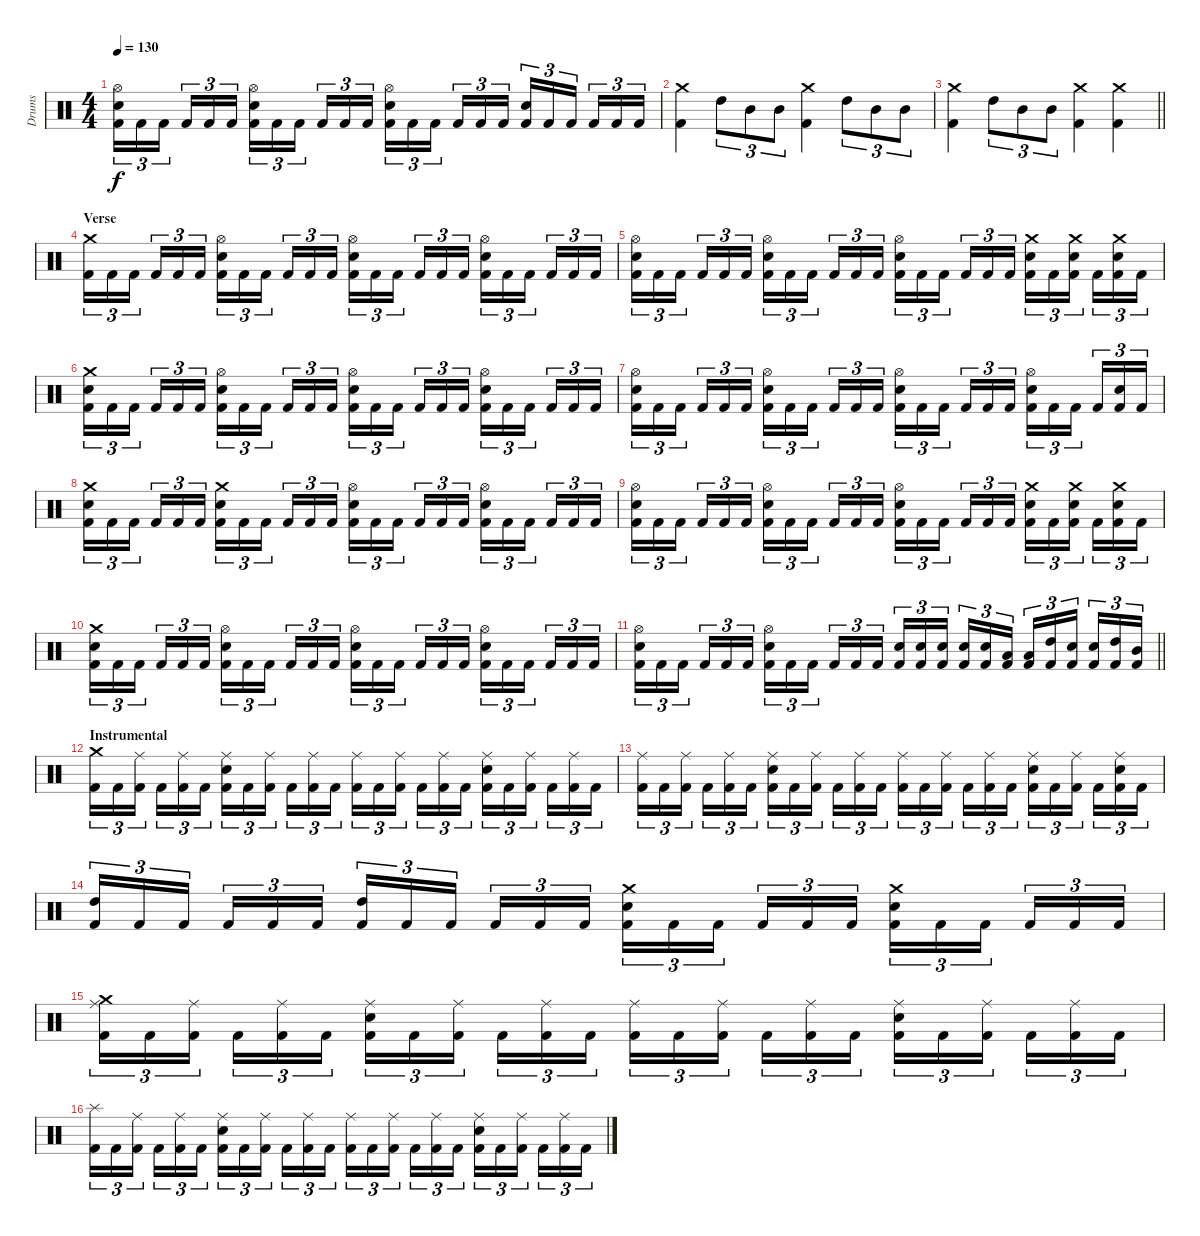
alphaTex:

\track ("Drums" "Drums") {instrument percussion}
\staff {score}
\articulation defaults
\ts (4 4)
\tempo 130
\clef neutral
\ks c
("Kick (hit) 2" "Electric Snare (hit)" "Hi-Hat (open)").16{tu (3 2) dy f} "Kick (hit) 2".16{tu (3 2)} "Kick (hit) 2".16{tu (3 2) beam splitsecondary} "Kick (hit) 2".16{tu (3 2)} "Kick (hit) 2".16{tu (3 2)} "Kick (hit) 2".16{tu (3 2)} ("Kick (hit) 2" "Electric Snare (hit)" "Hi-Hat (open)").16{tu (3 2)} "Kick (hit) 2".16{tu (3 2)} "Kick (hit) 2".16{tu (3 2) beam splitsecondary} "Kick (hit) 2".16{tu (3 2)} "Kick (hit) 2".16{tu (3 2)} "Kick (hit) 2".16{tu (3 2)} ("Kick (hit) 2" "Electric Snare (hit)" "Hi-Hat (open)").16{tu (3 2)} "Kick (hit) 2".16{tu (3 2)} "Kick (hit) 2".16{tu (3 2) beam splitsecondary} "Kick (hit) 2".16{tu (3 2)} "Kick (hit) 2".16{tu (3 2)} "Kick (hit) 2".16{tu (3 2)} ("Kick (hit) 2" "Electric Snare (hit)").16{tu (3 2)} "Kick (hit) 2".16{tu (3 2)} "Kick (hit) 2".16{tu (3 2) beam splitsecondary} "Kick (hit) 2".16{tu (3 2)} "Kick (hit) 2".16{tu (3 2)} "Kick (hit) 2".16{tu (3 2)} |
("Crash medium (hit)" "Kick (hit) 2").4 "High Tom (hit)".8{tu (3 2)} "Mid Tom (hit)".8{tu (3 2)} "Mid Tom (hit)".8{tu (3 2)} ("Crash medium (hit)" "Kick (hit) 2").4 "High Tom (hit)".8{tu (3 2)} "Mid Tom (hit)".8{tu (3 2)} "Mid Tom (hit)".8{tu (3 2)} |
\barLineRight lightlight
("Crash medium (hit)" "Kick (hit) 2").4 "High Tom (hit)".8{tu (3 2)} "Mid Tom (hit)".8{tu (3 2)} "Mid Tom (hit)".8{tu (3 2)} ("Crash medium (hit)" "Kick (hit) 2").4 ("Crash medium (hit)" "Kick (hit) 2").4 |
\section ("" "Verse")
("Kick (hit) 2" "Crash medium (hit)").16{tu (3 2)} "Kick (hit) 2".16{tu (3 2)} "Kick (hit) 2".16{tu (3 2) beam splitsecondary} "Kick (hit) 2".16{tu (3 2)} "Kick (hit) 2".16{tu (3 2)} "Kick (hit) 2".16{tu (3 2)} ("Kick (hit) 2" "Electric Snare (hit)" "Hi-Hat (open)").16{tu (3 2)} "Kick (hit) 2".16{tu (3 2)} "Kick (hit) 2".16{tu (3 2) beam splitsecondary} "Kick (hit) 2".16{tu (3 2)} "Kick (hit) 2".16{tu (3 2)} "Kick (hit) 2".16{tu (3 2)} ("Kick (hit) 2" "Electric Snare (hit)" "Hi-Hat (open)").16{tu (3 2)} "Kick (hit) 2".16{tu (3 2)} "Kick (hit) 2".16{tu (3 2) beam splitsecondary} "Kick (hit) 2".16{tu (3 2)} "Kick (hit) 2".16{tu (3 2)} "Kick (hit) 2".16{tu (3 2)} ("Kick (hit) 2" "Electric Snare (hit)" "Hi-Hat (open)").16{tu (3 2)} "Kick (hit) 2".16{tu (3 2)} "Kick (hit) 2".16{tu (3 2) beam splitsecondary} "Kick (hit) 2".16{tu (3 2)} "Kick (hit) 2".16{tu (3 2)} "Kick (hit) 2".16{tu (3 2)} |
("Kick (hit) 2" "Electric Snare (hit)" "Hi-Hat (open)").16{tu (3 2)} "Kick (hit) 2".16{tu (3 2)} "Kick (hit) 2".16{tu (3 2) beam splitsecondary} "Kick (hit) 2".16{tu (3 2)} "Kick (hit) 2".16{tu (3 2)} "Kick (hit) 2".16{tu (3 2)} ("Kick (hit) 2" "Electric Snare (hit)" "Hi-Hat (open)").16{tu (3 2)} "Kick (hit) 2".16{tu (3 2)} "Kick (hit) 2".16{tu (3 2) beam splitsecondary} "Kick (hit) 2".16{tu (3 2)} "Kick (hit) 2".16{tu (3 2)} "Kick (hit) 2".16{tu (3 2)} ("Kick (hit) 2" "Electric Snare (hit)" "Hi-Hat (open)").16{tu (3 2)} "Kick (hit) 2".16{tu (3 2)} "Kick (hit) 2".16{tu (3 2) beam splitsecondary} "Kick (hit) 2".16{tu (3 2)} "Kick (hit) 2".16{tu (3 2)} "Kick (hit) 2".16{tu (3 2)} ("Kick (hit) 2" "Electric Snare (hit)" "Crash medium (hit)").16{tu (3 2)} "Kick (hit) 2".16{tu (3 2)} ("Kick (hit) 2" "Electric Snare (hit)" "Crash medium (hit)").16{tu (3 2) beam splitsecondary} "Kick (hit) 2".16{tu (3 2)} ("Kick (hit) 2" "Electric Snare (hit)" "Crash medium (hit)").16{tu (3 2)} "Kick (hit) 2".16{tu (3 2)} |
("Kick (hit) 2" "Electric Snare (hit)" "Crash medium (hit)").16{tu (3 2)} "Kick (hit) 2".16{tu (3 2)} "Kick (hit) 2".16{tu (3 2) beam splitsecondary} "Kick (hit) 2".16{tu (3 2)} "Kick (hit) 2".16{tu (3 2)} "Kick (hit) 2".16{tu (3 2)} ("Kick (hit) 2" "Electric Snare (hit)" "Hi-Hat (open)").16{tu (3 2)} "Kick (hit) 2".16{tu (3 2)} "Kick (hit) 2".16{tu (3 2) beam splitsecondary} "Kick (hit) 2".16{tu (3 2)} "Kick (hit) 2".16{tu (3 2)} "Kick (hit) 2".16{tu (3 2)} ("Kick (hit) 2" "Electric Snare (hit)" "Hi-Hat (open)").16{tu (3 2)} "Kick (hit) 2".16{tu (3 2)} "Kick (hit) 2".16{tu (3 2) beam splitsecondary} "Kick (hit) 2".16{tu (3 2)} "Kick (hit) 2".16{tu (3 2)} "Kick (hit) 2".16{tu (3 2)} ("Kick (hit) 2" "Electric Snare (hit)" "Hi-Hat (open)").16{tu (3 2)} "Kick (hit) 2".16{tu (3 2)} "Kick (hit) 2".16{tu (3 2) beam splitsecondary} "Kick (hit) 2".16{tu (3 2)} "Kick (hit) 2".16{tu (3 2)} "Kick (hit) 2".16{tu (3 2)} |
("Kick (hit) 2" "Electric Snare (hit)" "Hi-Hat (open)").16{tu (3 2)} "Kick (hit) 2".16{tu (3 2)} "Kick (hit) 2".16{tu (3 2) beam splitsecondary} "Kick (hit) 2".16{tu (3 2)} "Kick (hit) 2".16{tu (3 2)} "Kick (hit) 2".16{tu (3 2)} ("Kick (hit) 2" "Electric Snare (hit)" "Hi-Hat (open)").16{tu (3 2)} "Kick (hit) 2".16{tu (3 2)} "Kick (hit) 2".16{tu (3 2) beam splitsecondary} "Kick (hit) 2".16{tu (3 2)} "Kick (hit) 2".16{tu (3 2)} "Kick (hit) 2".16{tu (3 2)} ("Kick (hit) 2" "Electric Snare (hit)" "Hi-Hat (open)").16{tu (3 2)} "Kick (hit) 2".16{tu (3 2)} "Kick (hit) 2".16{tu (3 2) beam splitsecondary} "Kick (hit) 2".16{tu (3 2)} "Kick (hit) 2".16{tu (3 2)} "Kick (hit) 2".16{tu (3 2)} ("Kick (hit) 2" "Electric Snare (hit)" "Hi-Hat (open)").16{tu (3 2)} "Kick (hit) 2".16{tu (3 2)} "Kick (hit) 2".16{tu (3 2) beam splitsecondary} "Kick (hit) 2".16{tu (3 2)} ("Kick (hit) 2" "Electric Snare (hit)").16{tu (3 2)} "Kick (hit) 2".16{tu (3 2)} |
("Kick (hit) 2" "Electric Snare (hit)" "Crash medium (hit)").16{tu (3 2)} "Kick (hit) 2".16{tu (3 2)} "Kick (hit) 2".16{tu (3 2) beam splitsecondary} "Kick (hit) 2".16{tu (3 2)} "Kick (hit) 2".16{tu (3 2)} "Kick (hit) 2".16{tu (3 2)} ("Kick (hit) 2" "Electric Snare (hit)" "Crash medium (hit)").16{tu (3 2)} "Kick (hit) 2".16{tu (3 2)} "Kick (hit) 2".16{tu (3 2) beam splitsecondary} "Kick (hit) 2".16{tu (3 2)} "Kick (hit) 2".16{tu (3 2)} "Kick (hit) 2".16{tu (3 2)} ("Kick (hit) 2" "Electric Snare (hit)" "Hi-Hat (open)").16{tu (3 2)} "Kick (hit) 2".16{tu (3 2)} "Kick (hit) 2".16{tu (3 2) beam splitsecondary} "Kick (hit) 2".16{tu (3 2)} "Kick (hit) 2".16{tu (3 2)} "Kick (hit) 2".16{tu (3 2)} ("Kick (hit) 2" "Electric Snare (hit)" "Hi-Hat (open)").16{tu (3 2)} "Kick (hit) 2".16{tu (3 2)} "Kick (hit) 2".16{tu (3 2) beam splitsecondary} "Kick (hit) 2".16{tu (3 2)} "Kick (hit) 2".16{tu (3 2)} "Kick (hit) 2".16{tu (3 2)} |
("Kick (hit) 2" "Electric Snare (hit)" "Hi-Hat (open)").16{tu (3 2)} "Kick (hit) 2".16{tu (3 2)} "Kick (hit) 2".16{tu (3 2) beam splitsecondary} "Kick (hit) 2".16{tu (3 2)} "Kick (hit) 2".16{tu (3 2)} "Kick (hit) 2".16{tu (3 2)} ("Kick (hit) 2" "Electric Snare (hit)" "Hi-Hat (open)").16{tu (3 2)} "Kick (hit) 2".16{tu (3 2)} "Kick (hit) 2".16{tu (3 2) beam splitsecondary} "Kick (hit) 2".16{tu (3 2)} "Kick (hit) 2".16{tu (3 2)} "Kick (hit) 2".16{tu (3 2)} ("Kick (hit) 2" "Electric Snare (hit)" "Hi-Hat (open)").16{tu (3 2)} "Kick (hit) 2".16{tu (3 2)} "Kick (hit) 2".16{tu (3 2) beam splitsecondary} "Kick (hit) 2".16{tu (3 2)} "Kick (hit) 2".16{tu (3 2)} "Kick (hit) 2".16{tu (3 2)} ("Kick (hit) 2" "Electric Snare (hit)" "Crash medium (hit)").16{tu (3 2)} "Kick (hit) 2".16{tu (3 2)} ("Kick (hit) 2" "Electric Snare (hit)" "Crash medium (hit)").16{tu (3 2) beam splitsecondary} "Kick (hit) 2".16{tu (3 2)} ("Kick (hit) 2" "Electric Snare (hit)" "Crash medium (hit)").16{tu (3 2)} "Kick (hit) 2".16{tu (3 2)} |
("Kick (hit) 2" "Electric Snare (hit)" "Crash medium (hit)").16{tu (3 2)} "Kick (hit) 2".16{tu (3 2)} "Kick (hit) 2".16{tu (3 2) beam splitsecondary} "Kick (hit) 2".16{tu (3 2)} "Kick (hit) 2".16{tu (3 2)} "Kick (hit) 2".16{tu (3 2)} ("Kick (hit) 2" "Electric Snare (hit)" "Hi-Hat (open)").16{tu (3 2)} "Kick (hit) 2".16{tu (3 2)} "Kick (hit) 2".16{tu (3 2) beam splitsecondary} "Kick (hit) 2".16{tu (3 2)} "Kick (hit) 2".16{tu (3 2)} "Kick (hit) 2".16{tu (3 2)} ("Kick (hit) 2" "Electric Snare (hit)" "Hi-Hat (open)").16{tu (3 2)} "Kick (hit) 2".16{tu (3 2)} "Kick (hit) 2".16{tu (3 2) beam splitsecondary} "Kick (hit) 2".16{tu (3 2)} "Kick (hit) 2".16{tu (3 2)} "Kick (hit) 2".16{tu (3 2)} ("Kick (hit) 2" "Electric Snare (hit)" "Hi-Hat (open)").16{tu (3 2)} "Kick (hit) 2".16{tu (3 2)} "Kick (hit) 2".16{tu (3 2) beam splitsecondary} "Kick (hit) 2".16{tu (3 2)} "Kick (hit) 2".16{tu (3 2)} "Kick (hit) 2".16{tu (3 2)} |
\barLineRight lightlight
("Kick (hit) 2" "Electric Snare (hit)" "Hi-Hat (open)").16{tu (3 2)} "Kick (hit) 2".16{tu (3 2)} "Kick (hit) 2".16{tu (3 2) beam splitsecondary} "Kick (hit) 2".16{tu (3 2)} "Kick (hit) 2".16{tu (3 2)} "Kick (hit) 2".16{tu (3 2)} ("Kick (hit) 2" "Electric Snare (hit)" "Hi-Hat (open)").16{tu (3 2)} "Kick (hit) 2".16{tu (3 2)} "Kick (hit) 2".16{tu (3 2) beam splitsecondary} "Kick (hit) 2".16{tu (3 2)} "Kick (hit) 2".16{tu (3 2)} "Kick (hit) 2".16{tu (3 2)} ("Kick (hit) 2" "Electric Snare (hit)").16{tu (3 2)} ("Kick (hit) 2" "Electric Snare (hit)").16{tu (3 2)} ("Kick (hit) 2" "Electric Snare (hit)").16{tu (3 2) beam splitsecondary} ("Kick (hit) 2" "Electric Snare (hit)").16{tu (3 2)} ("Kick (hit) 2" "Electric Snare (hit)").16{tu (3 2)} ("Kick (hit) 2" "Low Tom (hit)").16{tu (3 2)} ("Kick (hit) 2" "Low Tom (hit)").16{tu (3 2)} ("Kick (hit) 2" "High Tom (hit)").16{tu (3 2)} ("Kick (hit) 2" "Electric Snare (hit)").16{tu (3 2) beam splitsecondary} ("Kick (hit) 2" "Electric Snare (hit)").16{tu (3 2)} ("Kick (hit) 2" "High Tom (hit)").16{tu (3 2)} ("Kick (hit) 2" "Mid Tom (hit)").16{tu (3 2)} |
\section ("" "Instrumental")
("Kick (hit) 2" "Crash medium (hit)").16{tu (3 2)} "Kick (hit) 2".16{tu (3 2)} ("Kick (hit) 2" "Ride (middle)").16{tu (3 2) beam splitsecondary} "Kick (hit) 2".16{tu (3 2)} ("Kick (hit) 2" "Ride (middle)").16{tu (3 2)} "Kick (hit) 2".16{tu (3 2)} ("Kick (hit) 2" "Electric Snare (hit)" "Ride (middle)").16{tu (3 2)} "Kick (hit) 2".16{tu (3 2)} ("Kick (hit) 2" "Ride (middle)").16{tu (3 2) beam splitsecondary} "Kick (hit) 2".16{tu (3 2)} ("Kick (hit) 2" "Ride (middle)").16{tu (3 2)} "Kick (hit) 2".16{tu (3 2)} ("Kick (hit) 2" "Ride (middle)").16{tu (3 2)} "Kick (hit) 2".16{tu (3 2)} ("Kick (hit) 2" "Ride (middle)").16{tu (3 2) beam splitsecondary} "Kick (hit) 2".16{tu (3 2)} ("Kick (hit) 2" "Ride (middle)").16{tu (3 2)} "Kick (hit) 2".16{tu (3 2)} ("Kick (hit) 2" "Electric Snare (hit)" "Ride (middle)").16{tu (3 2)} "Kick (hit) 2".16{tu (3 2)} ("Kick (hit) 2" "Ride (middle)").16{tu (3 2) beam splitsecondary} "Kick (hit) 2".16{tu (3 2)} ("Kick (hit) 2" "Ride (middle)").16{tu (3 2)} "Kick (hit) 2".16{tu (3 2)} |
("Kick (hit) 2" "Ride (middle)").16{tu (3 2)} "Kick (hit) 2".16{tu (3 2)} ("Kick (hit) 2" "Ride (middle)").16{tu (3 2) beam splitsecondary} "Kick (hit) 2".16{tu (3 2)} ("Kick (hit) 2" "Ride (middle)").16{tu (3 2)} "Kick (hit) 2".16{tu (3 2)} ("Kick (hit) 2" "Electric Snare (hit)" "Ride (middle)").16{tu (3 2)} "Kick (hit) 2".16{tu (3 2)} ("Kick (hit) 2" "Ride (middle)").16{tu (3 2) beam splitsecondary} "Kick (hit) 2".16{tu (3 2)} ("Kick (hit) 2" "Ride (middle)").16{tu (3 2)} "Kick (hit) 2".16{tu (3 2)} ("Kick (hit) 2" "Ride (middle)").16{tu (3 2)} "Kick (hit) 2".16{tu (3 2)} ("Kick (hit) 2" "Ride (middle)").16{tu (3 2) beam splitsecondary} "Kick (hit) 2".16{tu (3 2)} ("Kick (hit) 2" "Ride (middle)").16{tu (3 2)} "Kick (hit) 2".16{tu (3 2)} ("Kick (hit) 2" "Electric Snare (hit)" "Ride (middle)").16{tu (3 2)} "Kick (hit) 2".16{tu (3 2)} ("Kick (hit) 2" "Ride (middle)").16{tu (3 2) beam splitsecondary} "Kick (hit) 2".16{tu (3 2)} ("Kick (hit) 2" "Electric Snare (hit)" "Ride (middle)").16{tu (3 2)} "Kick (hit) 2".16{tu (3 2)} |
("Kick (hit) 2" "High Tom (hit)").16{tu (3 2)} "Kick (hit) 2".16{tu (3 2)} "Kick (hit) 2".16{tu (3 2) beam splitsecondary} "Kick (hit) 2".16{tu (3 2)} "Kick (hit) 2".16{tu (3 2)} "Kick (hit) 2".16{tu (3 2)} ("Kick (hit) 2" "High Tom (hit)").16{tu (3 2)} "Kick (hit) 2".16{tu (3 2)} "Kick (hit) 2".16{tu (3 2) beam splitsecondary} "Kick (hit) 2".16{tu (3 2)} "Kick (hit) 2".16{tu (3 2)} "Kick (hit) 2".16{tu (3 2)} ("Kick (hit) 2" "Electric Snare (hit)" "Crash medium (hit)").16{tu (3 2)} "Kick (hit) 2".16{tu (3 2)} "Kick (hit) 2".16{tu (3 2) beam splitsecondary} "Kick (hit) 2".16{tu (3 2)} "Kick (hit) 2".16{tu (3 2)} "Kick (hit) 2".16{tu (3 2)} ("Kick (hit) 2" "Electric Snare (hit)" "Crash medium (hit)").16{tu (3 2)} "Kick (hit) 2".16{tu (3 2)} "Kick (hit) 2".16{tu (3 2) beam splitsecondary} "Kick (hit) 2".16{tu (3 2)} "Kick (hit) 2".16{tu (3 2)} "Kick (hit) 2".16{tu (3 2)} |
("Kick (hit) 2" "Crash medium (hit)" "Ride (middle)").16{tu (3 2)} "Kick (hit) 2".16{tu (3 2)} ("Kick (hit) 2" "Ride (middle)").16{tu (3 2) beam splitsecondary} "Kick (hit) 2".16{tu (3 2)} ("Kick (hit) 2" "Ride (middle)").16{tu (3 2)} "Kick (hit) 2".16{tu (3 2)} ("Kick (hit) 2" "Electric Snare (hit)" "Ride (middle)").16{tu (3 2)} "Kick (hit) 2".16{tu (3 2)} ("Kick (hit) 2" "Ride (middle)").16{tu (3 2) beam splitsecondary} "Kick (hit) 2".16{tu (3 2)} ("Kick (hit) 2" "Ride (middle)").16{tu (3 2)} "Kick (hit) 2".16{tu (3 2)} ("Kick (hit) 2" "Ride (middle)").16{tu (3 2)} "Kick (hit) 2".16{tu (3 2)} ("Kick (hit) 2" "Ride (middle)").16{tu (3 2) beam splitsecondary} "Kick (hit) 2".16{tu (3 2)} ("Kick (hit) 2" "Ride (middle)").16{tu (3 2)} "Kick (hit) 2".16{tu (3 2)} ("Kick (hit) 2" "Electric Snare (hit)" "Ride (middle)").16{tu (3 2)} "Kick (hit) 2".16{tu (3 2)} ("Kick (hit) 2" "Ride (middle)").16{tu (3 2) beam splitsecondary} "Kick (hit) 2".16{tu (3 2)} ("Kick (hit) 2" "Ride (middle)").16{tu (3 2)} "Kick (hit) 2".16{tu (3 2)} |
("Kick (hit) 2" "Splash (hit)").16{tu (3 2)} "Kick (hit) 2".16{tu (3 2)} ("Kick (hit) 2" "Ride (middle)").16{tu (3 2) beam splitsecondary} "Kick (hit) 2".16{tu (3 2)} ("Kick (hit) 2" "Ride (middle)").16{tu (3 2)} "Kick (hit) 2".16{tu (3 2)} ("Kick (hit) 2" "Electric Snare (hit)" "Ride (middle)").16{tu (3 2)} "Kick (hit) 2".16{tu (3 2)} ("Kick (hit) 2" "Ride (middle)").16{tu (3 2) beam splitsecondary} "Kick (hit) 2".16{tu (3 2)} ("Kick (hit) 2" "Ride (middle)").16{tu (3 2)} "Kick (hit) 2".16{tu (3 2)} ("Kick (hit) 2" "Ride (middle)").16{tu (3 2)} "Kick (hit) 2".16{tu (3 2)} ("Kick (hit) 2" "Ride (middle)").16{tu (3 2) beam splitsecondary} "Kick (hit) 2".16{tu (3 2)} ("Kick (hit) 2" "Ride (middle)").16{tu (3 2)} "Kick (hit) 2".16{tu (3 2)} ("Kick (hit) 2" "Electric Snare (hit)" "Ride (middle)").16{tu (3 2)} "Kick (hit) 2".16{tu (3 2)} ("Kick (hit) 2" "Ride (middle)").16{tu (3 2) beam splitsecondary} "Kick (hit) 2".16{tu (3 2)} ("Kick (hit) 2" "Ride (middle)").16{tu (3 2)} "Kick (hit) 2".16{tu (3 2)}
